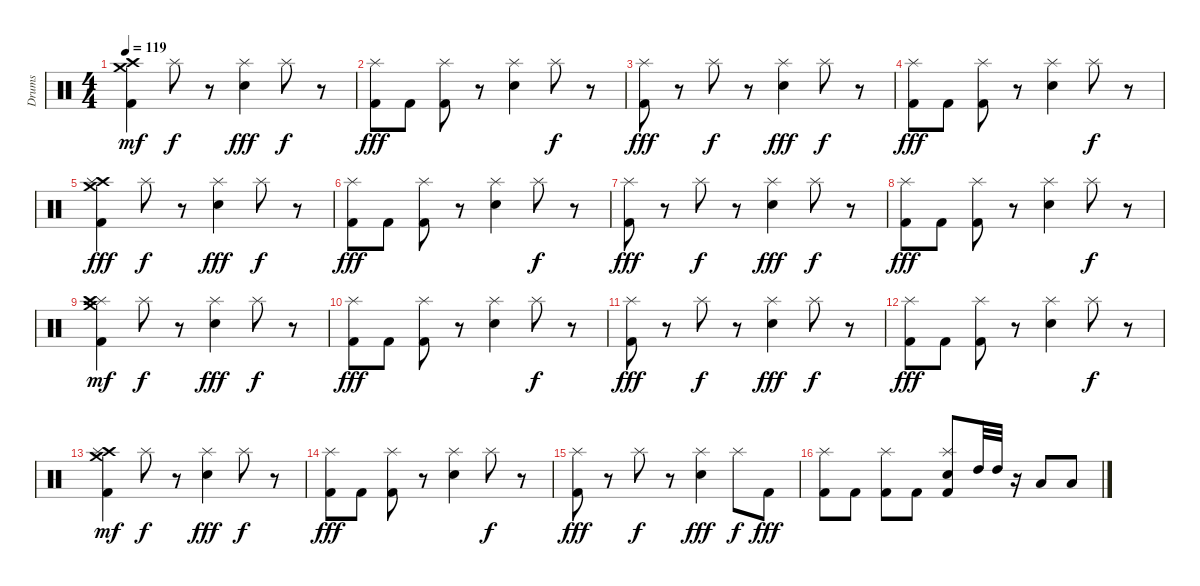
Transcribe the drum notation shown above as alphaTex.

\track ("Drums" "Drums") {instrument percussion}
\staff {score}
\articulation defaults
\ts (4 4)
\tempo 119
\clef neutral
\ks c
("Crash medium (hit)" "Kick (hit) 2" "Crash high (hit)").4{dy mf} "Splash (hit)".8{dy f} r.8 ("Splash (hit)" "Snare (hit) 2").4{dy fff} "Splash (hit)".8{dy f} r.8 |
("Splash (hit)" "Kick (hit) 2").8{dy fff} "Kick (hit) 2".8 ("Splash (hit)" "Kick (hit) 2").8 r.8 ("Splash (hit)" "Snare (hit) 2").4 "Splash (hit)".8{dy f} r.8 |
("Kick (hit) 2" "Splash (hit)").8{dy fff} r.8 "Splash (hit)".8{dy f} r.8 ("Snare (hit) 2" "Splash (hit)").4{dy fff} "Splash (hit)".8{dy f} r.8 |
("Kick (hit) 2" "Splash (hit)").8{dy fff} "Kick (hit) 2".8 ("Kick (hit) 2" "Splash (hit)").8 r.8 ("Snare (hit) 2" "Splash (hit)").4 "Splash (hit)".8{dy f} r.8 |
("Crash high (hit)" "Crash medium (hit)" "Kick (hit) 2" "Splash (hit)").4{dy fff} "Splash (hit)".8{dy f} r.8 ("Snare (hit) 2" "Splash (hit)").4{dy fff} "Splash (hit)".8{dy f} r.8 |
("Kick (hit) 2" "Splash (hit)").8{dy fff} "Kick (hit) 2".8 ("Splash (hit)" "Kick (hit) 2").8 r.8 ("Snare (hit) 2" "Splash (hit)").4 "Splash (hit)".8{dy f} r.8 |
("Splash (hit)" "Kick (hit) 2").8{dy fff} r.8 "Splash (hit)".8{dy f} r.8 ("Splash (hit)" "Snare (hit) 2").4{dy fff} "Splash (hit)".8{dy f} r.8 |
("Splash (hit)" "Kick (hit) 2").8{dy fff} "Kick (hit) 2".8 ("Kick (hit) 2" "Splash (hit)").8 r.8 ("Snare (hit) 2" "Splash (hit)").4 "Splash (hit)".8{dy f} r.8 |
("Splash (hit)" "Kick (hit) 2" "Crash medium (hit)" "Crash high (hit)").4{dy mf} "Splash (hit)".8{dy f} r.8 ("Splash (hit)" "Snare (hit) 2").4{dy fff} "Splash (hit)".8{dy f} r.8 |
("Splash (hit)" "Kick (hit) 2").8{dy fff} "Kick (hit) 2".8 ("Splash (hit)" "Kick (hit) 2").8 r.8 ("Snare (hit) 2" "Splash (hit)").4 "Splash (hit)".8{dy f} r.8 |
("Kick (hit) 2" "Splash (hit)").8{dy fff} r.8 "Splash (hit)".8{dy f} r.8 ("Snare (hit) 2" "Splash (hit)").4{dy fff} "Splash (hit)".8{dy f} r.8 |
("Kick (hit) 2" "Splash (hit)").8{dy fff} "Kick (hit) 2".8 ("Splash (hit)" "Kick (hit) 2").8 r.8 ("Splash (hit)" "Snare (hit) 2").4 "Splash (hit)".8{dy f} r.8 |
("Crash high (hit)" "Kick (hit) 2" "Splash (hit)" "Crash medium (hit)").4{dy mf} "Splash (hit)".8{dy f} r.8 ("Splash (hit)" "Snare (hit) 2").4{dy fff} "Splash (hit)".8{dy f} r.8 |
("Splash (hit)" "Kick (hit) 2").8{dy fff} "Kick (hit) 2".8 ("Splash (hit)" "Kick (hit) 2").8 r.8 ("Splash (hit)" "Snare (hit) 2").4 "Splash (hit)".8{dy f} r.8 |
("Splash (hit)" "Kick (hit) 2").8{dy fff} r.8 "Splash (hit)".8{dy f} r.8 ("Splash (hit)" "Snare (hit) 2").4{dy fff} "Splash (hit)".8{dy f} "Kick (hit) 2".8{dy fff} |
("Splash (hit)" "Kick (hit) 2").8 "Kick (hit) 2".8 ("Kick (hit) 2" "Splash (hit)").8 "Kick (hit) 2".8 ("Kick (hit) 2" "Splash (hit)" "Snare (hit) 2").8 "High Tom (hit)".32 "High Tom (hit)".32 r.16 "Low Tom (hit)".8 "Low Tom (hit)".8
